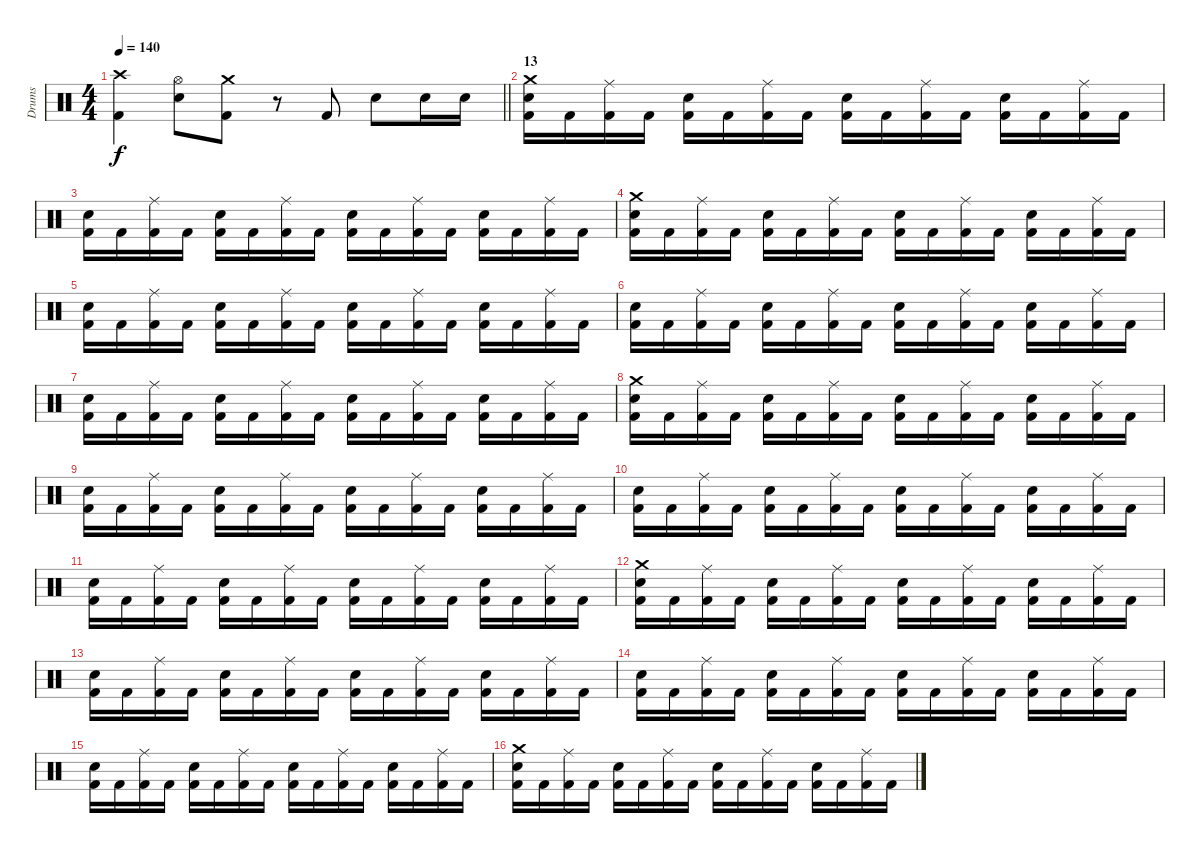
\track ("Drums" "Drums") {instrument percussion}
\staff {score}
\articulation defaults
\ts (4 4)
\tempo 140
\clef neutral
\barLineRight lightlight
\ks c
("Crash high (hit)" "Kick (hit) 2").4{dy f} ("Hi-Hat (open)" "Electric Snare (hit)").8 ("Crash medium (hit)" "Kick (hit) 2").8 r.8 "Kick (hit) 2".8 "Electric Snare (hit)".8 "Electric Snare (hit)".16 "Electric Snare (hit)".16 |
\section ("" "13")
("Crash medium (hit)" "Electric Snare (hit)" "Kick (hit) 2").16 "Kick (hit) 2".16 ("Ride (middle)" "Kick (hit) 2").16 "Kick (hit) 2".16 ("Electric Snare (hit)" "Kick (hit) 2").16 "Kick (hit) 2".16 ("Ride (middle)" "Kick (hit) 2").16 "Kick (hit) 2".16 ("Electric Snare (hit)" "Kick (hit) 2").16 "Kick (hit) 2".16 ("Ride (middle)" "Kick (hit) 2").16 "Kick (hit) 2".16 ("Electric Snare (hit)" "Kick (hit) 2").16 "Kick (hit) 2".16 ("Ride (middle)" "Kick (hit) 2").16 "Kick (hit) 2".16 |
("Electric Snare (hit)" "Kick (hit) 2").16 "Kick (hit) 2".16 ("Ride (middle)" "Kick (hit) 2").16 "Kick (hit) 2".16 ("Electric Snare (hit)" "Kick (hit) 2").16 "Kick (hit) 2".16 ("Ride (middle)" "Kick (hit) 2").16 "Kick (hit) 2".16 ("Electric Snare (hit)" "Kick (hit) 2").16 "Kick (hit) 2".16 ("Ride (middle)" "Kick (hit) 2").16 "Kick (hit) 2".16 ("Electric Snare (hit)" "Kick (hit) 2").16 "Kick (hit) 2".16 ("Ride (middle)" "Kick (hit) 2").16 "Kick (hit) 2".16 |
("Crash medium (hit)" "Electric Snare (hit)" "Kick (hit) 2").16 "Kick (hit) 2".16 ("Ride (middle)" "Kick (hit) 2").16 "Kick (hit) 2".16 ("Electric Snare (hit)" "Kick (hit) 2").16 "Kick (hit) 2".16 ("Ride (middle)" "Kick (hit) 2").16 "Kick (hit) 2".16 ("Electric Snare (hit)" "Kick (hit) 2").16 "Kick (hit) 2".16 ("Ride (middle)" "Kick (hit) 2").16 "Kick (hit) 2".16 ("Electric Snare (hit)" "Kick (hit) 2").16 "Kick (hit) 2".16 ("Ride (middle)" "Kick (hit) 2").16 "Kick (hit) 2".16 |
("Electric Snare (hit)" "Kick (hit) 2").16 "Kick (hit) 2".16 ("Ride (middle)" "Kick (hit) 2").16 "Kick (hit) 2".16 ("Electric Snare (hit)" "Kick (hit) 2").16 "Kick (hit) 2".16 ("Ride (middle)" "Kick (hit) 2").16 "Kick (hit) 2".16 ("Electric Snare (hit)" "Kick (hit) 2").16 "Kick (hit) 2".16 ("Ride (middle)" "Kick (hit) 2").16 "Kick (hit) 2".16 ("Electric Snare (hit)" "Kick (hit) 2").16 "Kick (hit) 2".16 ("Ride (middle)" "Kick (hit) 2").16 "Kick (hit) 2".16 |
("Electric Snare (hit)" "Kick (hit) 2").16 "Kick (hit) 2".16 ("Ride (middle)" "Kick (hit) 2").16 "Kick (hit) 2".16 ("Electric Snare (hit)" "Kick (hit) 2").16 "Kick (hit) 2".16 ("Ride (middle)" "Kick (hit) 2").16 "Kick (hit) 2".16 ("Electric Snare (hit)" "Kick (hit) 2").16 "Kick (hit) 2".16 ("Ride (middle)" "Kick (hit) 2").16 "Kick (hit) 2".16 ("Electric Snare (hit)" "Kick (hit) 2").16 "Kick (hit) 2".16 ("Ride (middle)" "Kick (hit) 2").16 "Kick (hit) 2".16 |
("Electric Snare (hit)" "Kick (hit) 2").16 "Kick (hit) 2".16 ("Ride (middle)" "Kick (hit) 2").16 "Kick (hit) 2".16 ("Electric Snare (hit)" "Kick (hit) 2").16 "Kick (hit) 2".16 ("Ride (middle)" "Kick (hit) 2").16 "Kick (hit) 2".16 ("Electric Snare (hit)" "Kick (hit) 2").16 "Kick (hit) 2".16 ("Ride (middle)" "Kick (hit) 2").16 "Kick (hit) 2".16 ("Electric Snare (hit)" "Kick (hit) 2").16 "Kick (hit) 2".16 ("Ride (middle)" "Kick (hit) 2").16 "Kick (hit) 2".16 |
("Crash medium (hit)" "Electric Snare (hit)" "Kick (hit) 2").16 "Kick (hit) 2".16 ("Ride (middle)" "Kick (hit) 2").16 "Kick (hit) 2".16 ("Electric Snare (hit)" "Kick (hit) 2").16 "Kick (hit) 2".16 ("Ride (middle)" "Kick (hit) 2").16 "Kick (hit) 2".16 ("Electric Snare (hit)" "Kick (hit) 2").16 "Kick (hit) 2".16 ("Ride (middle)" "Kick (hit) 2").16 "Kick (hit) 2".16 ("Electric Snare (hit)" "Kick (hit) 2").16 "Kick (hit) 2".16 ("Ride (middle)" "Kick (hit) 2").16 "Kick (hit) 2".16 |
("Electric Snare (hit)" "Kick (hit) 2").16 "Kick (hit) 2".16 ("Ride (middle)" "Kick (hit) 2").16 "Kick (hit) 2".16 ("Electric Snare (hit)" "Kick (hit) 2").16 "Kick (hit) 2".16 ("Ride (middle)" "Kick (hit) 2").16 "Kick (hit) 2".16 ("Electric Snare (hit)" "Kick (hit) 2").16 "Kick (hit) 2".16 ("Ride (middle)" "Kick (hit) 2").16 "Kick (hit) 2".16 ("Electric Snare (hit)" "Kick (hit) 2").16 "Kick (hit) 2".16 ("Ride (middle)" "Kick (hit) 2").16 "Kick (hit) 2".16 |
("Electric Snare (hit)" "Kick (hit) 2").16 "Kick (hit) 2".16 ("Ride (middle)" "Kick (hit) 2").16 "Kick (hit) 2".16 ("Electric Snare (hit)" "Kick (hit) 2").16 "Kick (hit) 2".16 ("Ride (middle)" "Kick (hit) 2").16 "Kick (hit) 2".16 ("Electric Snare (hit)" "Kick (hit) 2").16 "Kick (hit) 2".16 ("Ride (middle)" "Kick (hit) 2").16 "Kick (hit) 2".16 ("Electric Snare (hit)" "Kick (hit) 2").16 "Kick (hit) 2".16 ("Ride (middle)" "Kick (hit) 2").16 "Kick (hit) 2".16 |
("Electric Snare (hit)" "Kick (hit) 2").16 "Kick (hit) 2".16 ("Ride (middle)" "Kick (hit) 2").16 "Kick (hit) 2".16 ("Electric Snare (hit)" "Kick (hit) 2").16 "Kick (hit) 2".16 ("Ride (middle)" "Kick (hit) 2").16 "Kick (hit) 2".16 ("Electric Snare (hit)" "Kick (hit) 2").16 "Kick (hit) 2".16 ("Ride (middle)" "Kick (hit) 2").16 "Kick (hit) 2".16 ("Electric Snare (hit)" "Kick (hit) 2").16 "Kick (hit) 2".16 ("Ride (middle)" "Kick (hit) 2").16 "Kick (hit) 2".16 |
("Crash medium (hit)" "Electric Snare (hit)" "Kick (hit) 2").16 "Kick (hit) 2".16 ("Ride (middle)" "Kick (hit) 2").16 "Kick (hit) 2".16 ("Electric Snare (hit)" "Kick (hit) 2").16 "Kick (hit) 2".16 ("Ride (middle)" "Kick (hit) 2").16 "Kick (hit) 2".16 ("Electric Snare (hit)" "Kick (hit) 2").16 "Kick (hit) 2".16 ("Ride (middle)" "Kick (hit) 2").16 "Kick (hit) 2".16 ("Electric Snare (hit)" "Kick (hit) 2").16 "Kick (hit) 2".16 ("Ride (middle)" "Kick (hit) 2").16 "Kick (hit) 2".16 |
("Electric Snare (hit)" "Kick (hit) 2").16 "Kick (hit) 2".16 ("Ride (middle)" "Kick (hit) 2").16 "Kick (hit) 2".16 ("Electric Snare (hit)" "Kick (hit) 2").16 "Kick (hit) 2".16 ("Ride (middle)" "Kick (hit) 2").16 "Kick (hit) 2".16 ("Electric Snare (hit)" "Kick (hit) 2").16 "Kick (hit) 2".16 ("Ride (middle)" "Kick (hit) 2").16 "Kick (hit) 2".16 ("Electric Snare (hit)" "Kick (hit) 2").16 "Kick (hit) 2".16 ("Ride (middle)" "Kick (hit) 2").16 "Kick (hit) 2".16 |
("Electric Snare (hit)" "Kick (hit) 2").16 "Kick (hit) 2".16 ("Ride (middle)" "Kick (hit) 2").16 "Kick (hit) 2".16 ("Electric Snare (hit)" "Kick (hit) 2").16 "Kick (hit) 2".16 ("Ride (middle)" "Kick (hit) 2").16 "Kick (hit) 2".16 ("Electric Snare (hit)" "Kick (hit) 2").16 "Kick (hit) 2".16 ("Ride (middle)" "Kick (hit) 2").16 "Kick (hit) 2".16 ("Electric Snare (hit)" "Kick (hit) 2").16 "Kick (hit) 2".16 ("Ride (middle)" "Kick (hit) 2").16 "Kick (hit) 2".16 |
("Electric Snare (hit)" "Kick (hit) 2").16 "Kick (hit) 2".16 ("Ride (middle)" "Kick (hit) 2").16 "Kick (hit) 2".16 ("Electric Snare (hit)" "Kick (hit) 2").16 "Kick (hit) 2".16 ("Ride (middle)" "Kick (hit) 2").16 "Kick (hit) 2".16 ("Electric Snare (hit)" "Kick (hit) 2").16 "Kick (hit) 2".16 ("Ride (middle)" "Kick (hit) 2").16 "Kick (hit) 2".16 ("Electric Snare (hit)" "Kick (hit) 2").16 "Kick (hit) 2".16 ("Ride (middle)" "Kick (hit) 2").16 "Kick (hit) 2".16 |
("Crash medium (hit)" "Electric Snare (hit)" "Kick (hit) 2").16 "Kick (hit) 2".16 ("Ride (middle)" "Kick (hit) 2").16 "Kick (hit) 2".16 ("Electric Snare (hit)" "Kick (hit) 2").16 "Kick (hit) 2".16 ("Ride (middle)" "Kick (hit) 2").16 "Kick (hit) 2".16 ("Electric Snare (hit)" "Kick (hit) 2").16 "Kick (hit) 2".16 ("Ride (middle)" "Kick (hit) 2").16 "Kick (hit) 2".16 ("Electric Snare (hit)" "Kick (hit) 2").16 "Kick (hit) 2".16 ("Ride (middle)" "Kick (hit) 2").16 "Kick (hit) 2".16
